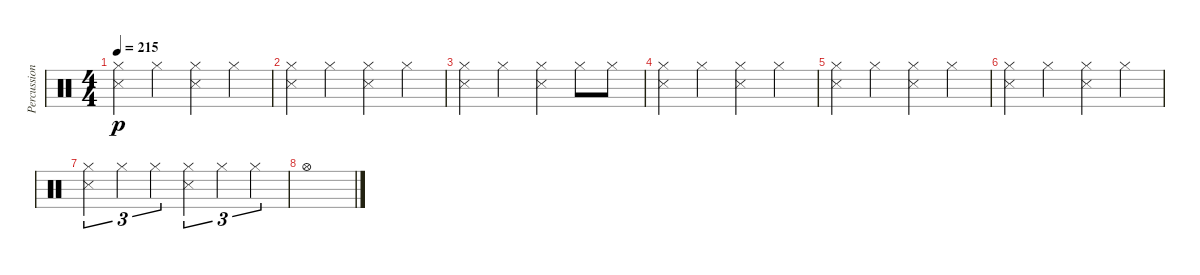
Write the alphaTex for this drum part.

\track ("Percussion" "Percussion") {instrument percussion}
\staff {score}
\articulation defaults
\ts (4 4)
\tempo 215
\clef neutral
\ks c
("Hi-Hat (closed)" "Snare (side stick) 3").4{dy p} "Hi-Hat (closed)".4 ("Hi-Hat (closed)" "Snare (side stick) 3").4 "Hi-Hat (closed)".4 |
("Hi-Hat (closed)" "Snare (side stick) 3").4 "Hi-Hat (closed)".4 ("Hi-Hat (closed)" "Snare (side stick) 3").4 "Hi-Hat (closed)".4 |
("Hi-Hat (closed)" "Snare (side stick) 3").4 "Hi-Hat (closed)".4 ("Hi-Hat (closed)" "Snare (side stick) 3").4 "Hi-Hat (closed)".8 "Hi-Hat (closed)".8 |
("Hi-Hat (closed)" "Snare (side stick) 3").4 "Hi-Hat (closed)".4 ("Hi-Hat (closed)" "Snare (side stick) 3").4 "Hi-Hat (closed)".4 |
("Hi-Hat (closed)" "Snare (side stick) 3").4 "Hi-Hat (closed)".4 ("Hi-Hat (closed)" "Snare (side stick) 3").4 "Hi-Hat (closed)".4 |
("Hi-Hat (closed)" "Snare (side stick) 3").4 "Hi-Hat (closed)".4 ("Hi-Hat (closed)" "Snare (side stick) 3").4 "Hi-Hat (closed)".4 |
("Hi-Hat (closed)" "Snare (side stick) 3").4{tu (3 2)} "Hi-Hat (closed)".4{tu (3 2)} "Hi-Hat (closed)".4{tu (3 2)} ("Hi-Hat (closed)" "Snare (side stick) 3").4{tu (3 2)} "Hi-Hat (closed)".4{tu (3 2)} "Hi-Hat (closed)".4{tu (3 2)} |
"Hi-Hat (open)".1
